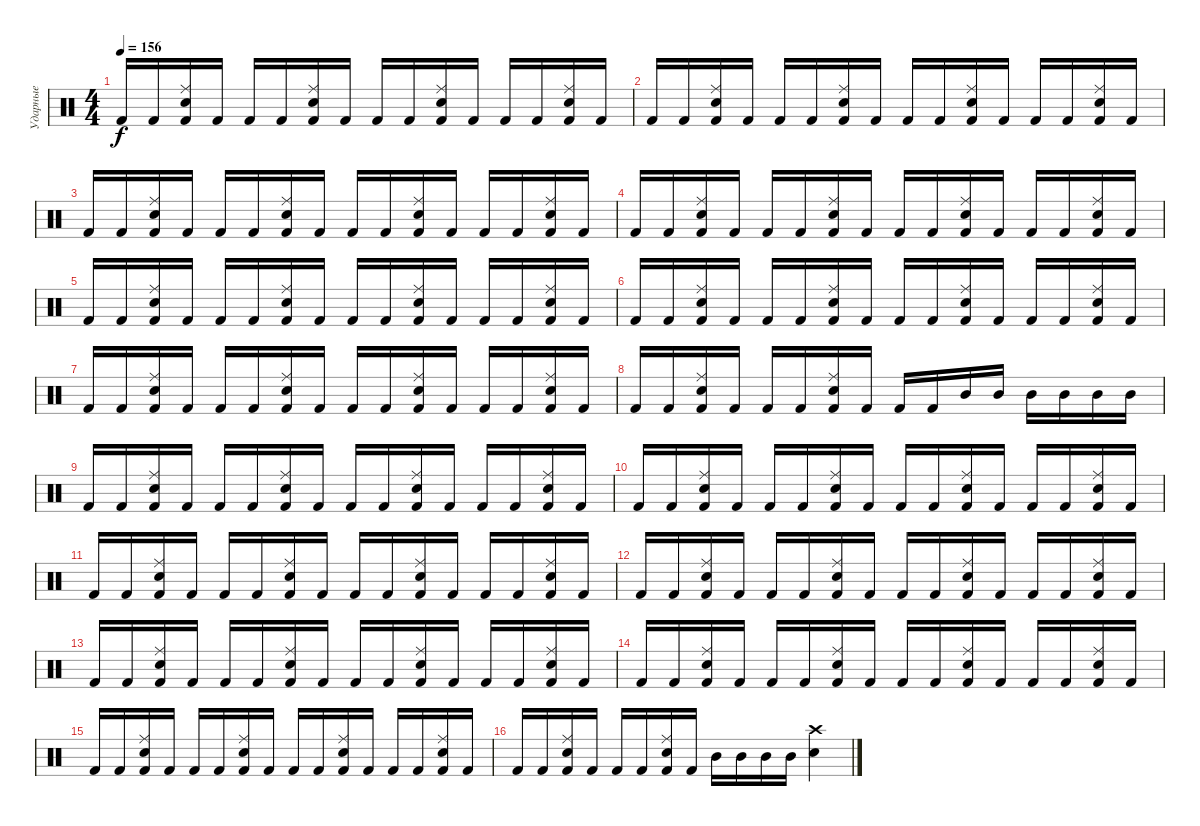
\track ("Ударные" "Ударные") {instrument percussion}
\staff {score}
\articulation defaults
\ts (4 4)
\tempo 156
\clef neutral
\ks c "Kick (hit) 2".16{dy f} "Kick (hit) 2".16
("Ride (middle)" "Electric Snare (hit)" "Kick (hit) 2").16 "Kick (hit) 2".16 "Kick (hit) 2".16 "Kick (hit) 2".16 ("Ride (middle)" "Electric Snare (hit)" "Kick (hit) 2").16 "Kick (hit) 2".16 "Kick (hit) 2".16 "Kick (hit) 2".16 ("Ride (middle)" "Electric Snare (hit)" "Kick (hit) 2").16 "Kick (hit) 2".16 "Kick (hit) 2".16 "Kick (hit) 2".16 ("Ride (middle)" "Electric Snare (hit)" "Kick (hit) 2").16 "Kick (hit) 2".16 |
"Kick (hit) 2".16 "Kick (hit) 2".16 ("Ride (middle)" "Electric Snare (hit)" "Kick (hit) 2").16 "Kick (hit) 2".16 "Kick (hit) 2".16 "Kick (hit) 2".16 ("Ride (middle)" "Electric Snare (hit)" "Kick (hit) 2").16 "Kick (hit) 2".16 "Kick (hit) 2".16 "Kick (hit) 2".16 ("Ride (middle)" "Electric Snare (hit)" "Kick (hit) 2").16 "Kick (hit) 2".16 "Kick (hit) 2".16 "Kick (hit) 2".16 ("Ride (middle)" "Electric Snare (hit)" "Kick (hit) 2").16 "Kick (hit) 2".16 |
"Kick (hit) 2".16 "Kick (hit) 2".16 ("Ride (middle)" "Electric Snare (hit)" "Kick (hit) 2").16 "Kick (hit) 2".16 "Kick (hit) 2".16 "Kick (hit) 2".16 ("Ride (middle)" "Electric Snare (hit)" "Kick (hit) 2").16 "Kick (hit) 2".16 "Kick (hit) 2".16 "Kick (hit) 2".16 ("Ride (middle)" "Electric Snare (hit)" "Kick (hit) 2").16 "Kick (hit) 2".16 "Kick (hit) 2".16 "Kick (hit) 2".16 ("Ride (middle)" "Electric Snare (hit)" "Kick (hit) 2").16 "Kick (hit) 2".16 |
"Kick (hit) 2".16 "Kick (hit) 2".16 ("Ride (middle)" "Electric Snare (hit)" "Kick (hit) 2").16 "Kick (hit) 2".16 "Kick (hit) 2".16 "Kick (hit) 2".16 ("Ride (middle)" "Electric Snare (hit)" "Kick (hit) 2").16 "Kick (hit) 2".16 "Kick (hit) 2".16 "Kick (hit) 2".16 ("Ride (middle)" "Electric Snare (hit)" "Kick (hit) 2").16 "Kick (hit) 2".16 "Kick (hit) 2".16 "Kick (hit) 2".16 ("Ride (middle)" "Electric Snare (hit)" "Kick (hit) 2").16 "Kick (hit) 2".16 |
"Kick (hit) 2".16 "Kick (hit) 2".16 ("Ride (middle)" "Electric Snare (hit)" "Kick (hit) 2").16 "Kick (hit) 2".16 "Kick (hit) 2".16 "Kick (hit) 2".16 ("Ride (middle)" "Electric Snare (hit)" "Kick (hit) 2").16 "Kick (hit) 2".16 "Kick (hit) 2".16 "Kick (hit) 2".16 ("Ride (middle)" "Electric Snare (hit)" "Kick (hit) 2").16 "Kick (hit) 2".16 "Kick (hit) 2".16 "Kick (hit) 2".16 ("Ride (middle)" "Electric Snare (hit)" "Kick (hit) 2").16 "Kick (hit) 2".16 |
"Kick (hit) 2".16 "Kick (hit) 2".16 ("Ride (middle)" "Electric Snare (hit)" "Kick (hit) 2").16 "Kick (hit) 2".16 "Kick (hit) 2".16 "Kick (hit) 2".16 ("Ride (middle)" "Electric Snare (hit)" "Kick (hit) 2").16 "Kick (hit) 2".16 "Kick (hit) 2".16 "Kick (hit) 2".16 ("Ride (middle)" "Electric Snare (hit)" "Kick (hit) 2").16 "Kick (hit) 2".16 "Kick (hit) 2".16 "Kick (hit) 2".16 ("Ride (middle)" "Electric Snare (hit)" "Kick (hit) 2").16 "Kick (hit) 2".16 |
"Kick (hit) 2".16 "Kick (hit) 2".16 ("Ride (middle)" "Electric Snare (hit)" "Kick (hit) 2").16 "Kick (hit) 2".16 "Kick (hit) 2".16 "Kick (hit) 2".16 ("Ride (middle)" "Electric Snare (hit)" "Kick (hit) 2").16 "Kick (hit) 2".16 "Kick (hit) 2".16 "Kick (hit) 2".16 ("Ride (middle)" "Electric Snare (hit)" "Kick (hit) 2").16 "Kick (hit) 2".16 "Kick (hit) 2".16 "Kick (hit) 2".16 ("Ride (middle)" "Electric Snare (hit)" "Kick (hit) 2").16 "Kick (hit) 2".16 |
"Kick (hit) 2".16 "Kick (hit) 2".16 ("Ride (middle)" "Electric Snare (hit)" "Kick (hit) 2").16 "Kick (hit) 2".16 "Kick (hit) 2".16 "Kick (hit) 2".16 ("Ride (middle)" "Electric Snare (hit)" "Kick (hit) 2").16 "Kick (hit) 2".16 "Kick (hit) 2".16 "Kick (hit) 2".16 "Mid Tom (hit)".16 "Mid Tom (hit)".16 "Mid Tom (hit)".16 "Mid Tom (hit)".16 "Mid Tom (hit)".16 "Mid Tom (hit)".16 |
"Kick (hit) 2".16 "Kick (hit) 2".16 ("Ride (middle)" "Electric Snare (hit)" "Kick (hit) 2").16 "Kick (hit) 2".16 "Kick (hit) 2".16 "Kick (hit) 2".16 ("Ride (middle)" "Electric Snare (hit)" "Kick (hit) 2").16 "Kick (hit) 2".16 "Kick (hit) 2".16 "Kick (hit) 2".16 ("Ride (middle)" "Electric Snare (hit)" "Kick (hit) 2").16 "Kick (hit) 2".16 "Kick (hit) 2".16 "Kick (hit) 2".16 ("Ride (middle)" "Electric Snare (hit)" "Kick (hit) 2").16 "Kick (hit) 2".16 |
"Kick (hit) 2".16 "Kick (hit) 2".16 ("Ride (middle)" "Electric Snare (hit)" "Kick (hit) 2").16 "Kick (hit) 2".16 "Kick (hit) 2".16 "Kick (hit) 2".16 ("Ride (middle)" "Electric Snare (hit)" "Kick (hit) 2").16 "Kick (hit) 2".16 "Kick (hit) 2".16 "Kick (hit) 2".16 ("Ride (middle)" "Electric Snare (hit)" "Kick (hit) 2").16 "Kick (hit) 2".16 "Kick (hit) 2".16 "Kick (hit) 2".16 ("Ride (middle)" "Electric Snare (hit)" "Kick (hit) 2").16 "Kick (hit) 2".16 |
"Kick (hit) 2".16 "Kick (hit) 2".16 ("Ride (middle)" "Electric Snare (hit)" "Kick (hit) 2").16 "Kick (hit) 2".16 "Kick (hit) 2".16 "Kick (hit) 2".16 ("Ride (middle)" "Electric Snare (hit)" "Kick (hit) 2").16 "Kick (hit) 2".16 "Kick (hit) 2".16 "Kick (hit) 2".16 ("Ride (middle)" "Electric Snare (hit)" "Kick (hit) 2").16 "Kick (hit) 2".16 "Kick (hit) 2".16 "Kick (hit) 2".16 ("Ride (middle)" "Electric Snare (hit)" "Kick (hit) 2").16 "Kick (hit) 2".16 |
"Kick (hit) 2".16 "Kick (hit) 2".16 ("Ride (middle)" "Electric Snare (hit)" "Kick (hit) 2").16 "Kick (hit) 2".16 "Kick (hit) 2".16 "Kick (hit) 2".16 ("Ride (middle)" "Electric Snare (hit)" "Kick (hit) 2").16 "Kick (hit) 2".16 "Kick (hit) 2".16 "Kick (hit) 2".16 ("Ride (middle)" "Electric Snare (hit)" "Kick (hit) 2").16 "Kick (hit) 2".16 "Kick (hit) 2".16 "Kick (hit) 2".16 ("Ride (middle)" "Electric Snare (hit)" "Kick (hit) 2").16 "Kick (hit) 2".16 |
"Kick (hit) 2".16 "Kick (hit) 2".16 ("Ride (middle)" "Electric Snare (hit)" "Kick (hit) 2").16 "Kick (hit) 2".16 "Kick (hit) 2".16 "Kick (hit) 2".16 ("Ride (middle)" "Electric Snare (hit)" "Kick (hit) 2").16 "Kick (hit) 2".16 "Kick (hit) 2".16 "Kick (hit) 2".16 ("Ride (middle)" "Electric Snare (hit)" "Kick (hit) 2").16 "Kick (hit) 2".16 "Kick (hit) 2".16 "Kick (hit) 2".16 ("Ride (middle)" "Electric Snare (hit)" "Kick (hit) 2").16 "Kick (hit) 2".16 |
"Kick (hit) 2".16 "Kick (hit) 2".16 ("Ride (middle)" "Electric Snare (hit)" "Kick (hit) 2").16 "Kick (hit) 2".16 "Kick (hit) 2".16 "Kick (hit) 2".16 ("Ride (middle)" "Electric Snare (hit)" "Kick (hit) 2").16 "Kick (hit) 2".16 "Kick (hit) 2".16 "Kick (hit) 2".16 ("Ride (middle)" "Electric Snare (hit)" "Kick (hit) 2").16 "Kick (hit) 2".16 "Kick (hit) 2".16 "Kick (hit) 2".16 ("Ride (middle)" "Electric Snare (hit)" "Kick (hit) 2").16 "Kick (hit) 2".16 |
"Kick (hit) 2".16 "Kick (hit) 2".16 ("Ride (middle)" "Electric Snare (hit)" "Kick (hit) 2").16 "Kick (hit) 2".16 "Kick (hit) 2".16 "Kick (hit) 2".16 ("Ride (middle)" "Electric Snare (hit)" "Kick (hit) 2").16 "Kick (hit) 2".16 "Kick (hit) 2".16 "Kick (hit) 2".16 ("Ride (middle)" "Electric Snare (hit)" "Kick (hit) 2").16 "Kick (hit) 2".16 "Kick (hit) 2".16 "Kick (hit) 2".16 ("Ride (middle)" "Electric Snare (hit)" "Kick (hit) 2").16 "Kick (hit) 2".16 |
"Kick (hit) 2".16 "Kick (hit) 2".16 ("Ride (middle)" "Electric Snare (hit)" "Kick (hit) 2").16 "Kick (hit) 2".16 "Kick (hit) 2".16 "Kick (hit) 2".16 ("Ride (middle)" "Electric Snare (hit)" "Kick (hit) 2").16 "Kick (hit) 2".16 "Mid Tom (hit)".16 "Mid Tom (hit)".16 "Mid Tom (hit)".16 "Mid Tom (hit)".16 ("Crash high (hit)" "Electric Snare (hit)").4
